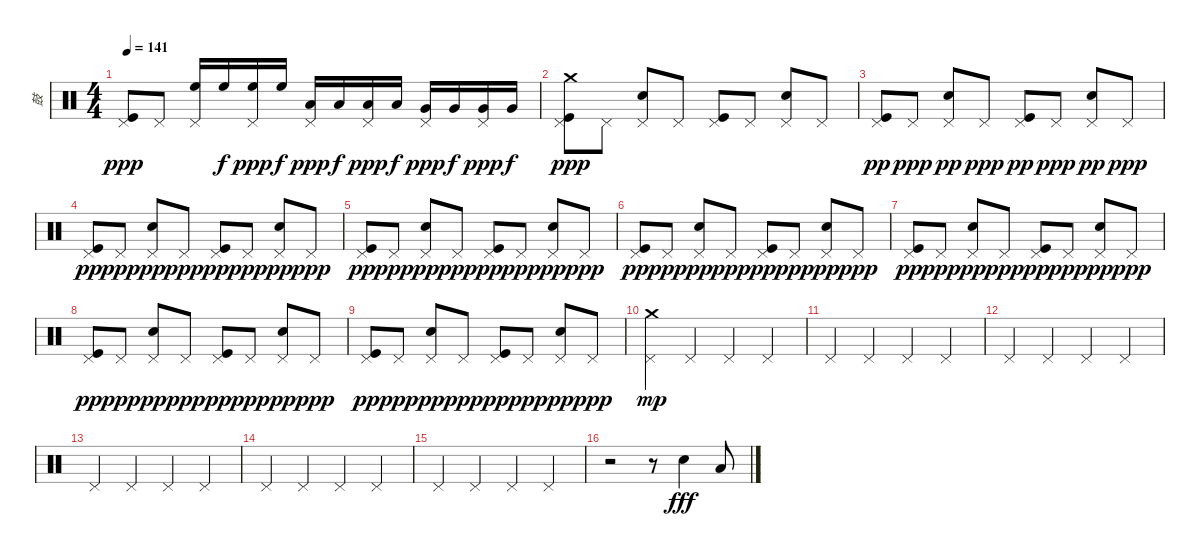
\track ("鼓" "鼓") {instrument percussion}
\staff {score}
\articulation defaults
\ts (4 4)
\tempo 141
\clef neutral
\ks c
("Kick (hit)" "Pedal Hi-Hat (hit)").8{dy ppp} "Pedal Hi-Hat (hit)".8 ("High Floor Tom (hit)" "Pedal Hi-Hat (hit)").16 "High Floor Tom (hit)".16{dy f} ("High Floor Tom (hit)" "Pedal Hi-Hat (hit)").16{dy ppp} "High Floor Tom (hit)".16{dy f} ("Low Tom (hit)" "Pedal Hi-Hat (hit)").16{dy ppp} "Low Tom (hit)".16{dy f} ("Low Tom (hit)" "Pedal Hi-Hat (hit)").16{dy ppp} "Low Tom (hit)".16{dy f} ("Very Low Tom (hit)" "Pedal Hi-Hat (hit)").16{dy ppp} "Very Low Tom (hit)".16{dy f} ("Very Low Tom (hit)" "Pedal Hi-Hat (hit)").16{dy ppp} "Very Low Tom (hit)".16{dy f} |
("Crash medium (hit)" "Kick (hit)" "Pedal Hi-Hat (hit)").8{dy ppp} "Pedal Hi-Hat (hit)".8 ("Snare (hit) 2" "Pedal Hi-Hat (hit)").8 "Pedal Hi-Hat (hit)".8 ("Kick (hit)" "Pedal Hi-Hat (hit)").8 "Pedal Hi-Hat (hit)".8 ("Snare (hit) 2" "Pedal Hi-Hat (hit)").8 "Pedal Hi-Hat (hit)".8 |
("Kick (hit)" "Pedal Hi-Hat (hit)").8{dy pp} "Pedal Hi-Hat (hit)".8{dy ppp} ("Snare (hit) 2" "Pedal Hi-Hat (hit)").8{dy pp} "Pedal Hi-Hat (hit)".8{dy ppp} ("Kick (hit)" "Pedal Hi-Hat (hit)").8{dy pp} "Pedal Hi-Hat (hit)".8{dy ppp} ("Snare (hit) 2" "Pedal Hi-Hat (hit)").8{dy pp} "Pedal Hi-Hat (hit)".8{dy ppp} |
("Kick (hit)" "Pedal Hi-Hat (hit)").8{dy pp} "Pedal Hi-Hat (hit)".8{dy ppp} ("Snare (hit) 2" "Pedal Hi-Hat (hit)").8{dy pp} "Pedal Hi-Hat (hit)".8{dy ppp} ("Kick (hit)" "Pedal Hi-Hat (hit)").8{dy pp} "Pedal Hi-Hat (hit)".8{dy ppp} ("Snare (hit) 2" "Pedal Hi-Hat (hit)").8{dy pp} "Pedal Hi-Hat (hit)".8{dy ppp} |
("Kick (hit)" "Pedal Hi-Hat (hit)").8{dy pp} "Pedal Hi-Hat (hit)".8{dy ppp} ("Snare (hit) 2" "Pedal Hi-Hat (hit)").8{dy pp} "Pedal Hi-Hat (hit)".8{dy ppp} ("Kick (hit)" "Pedal Hi-Hat (hit)").8{dy pp} "Pedal Hi-Hat (hit)".8{dy ppp} ("Snare (hit) 2" "Pedal Hi-Hat (hit)").8{dy pp} "Pedal Hi-Hat (hit)".8{dy ppp} |
("Kick (hit)" "Pedal Hi-Hat (hit)").8{dy pp} "Pedal Hi-Hat (hit)".8{dy ppp} ("Snare (hit) 2" "Pedal Hi-Hat (hit)").8{dy pp} "Pedal Hi-Hat (hit)".8{dy ppp} ("Kick (hit)" "Pedal Hi-Hat (hit)").8{dy pp} "Pedal Hi-Hat (hit)".8{dy ppp} ("Snare (hit) 2" "Pedal Hi-Hat (hit)").8{dy pp} "Pedal Hi-Hat (hit)".8{dy ppp} |
("Kick (hit)" "Pedal Hi-Hat (hit)").8{dy pp} "Pedal Hi-Hat (hit)".8{dy ppp} ("Snare (hit) 2" "Pedal Hi-Hat (hit)").8{dy pp} "Pedal Hi-Hat (hit)".8{dy ppp} ("Kick (hit)" "Pedal Hi-Hat (hit)").8{dy pp} "Pedal Hi-Hat (hit)".8{dy ppp} ("Snare (hit) 2" "Pedal Hi-Hat (hit)").8{dy pp} "Pedal Hi-Hat (hit)".8{dy ppp} |
("Kick (hit)" "Pedal Hi-Hat (hit)").8{dy pp} "Pedal Hi-Hat (hit)".8{dy ppp} ("Snare (hit) 2" "Pedal Hi-Hat (hit)").8{dy pp} "Pedal Hi-Hat (hit)".8{dy ppp} ("Kick (hit)" "Pedal Hi-Hat (hit)").8{dy pp} "Pedal Hi-Hat (hit)".8{dy ppp} ("Snare (hit) 2" "Pedal Hi-Hat (hit)").8{dy pp} "Pedal Hi-Hat (hit)".8{dy ppp} |
("Kick (hit)" "Pedal Hi-Hat (hit)").8{dy pp} "Pedal Hi-Hat (hit)".8{dy ppp} ("Snare (hit) 2" "Pedal Hi-Hat (hit)").8{dy pp} "Pedal Hi-Hat (hit)".8{dy ppp} ("Kick (hit)" "Pedal Hi-Hat (hit)").8{dy pp} "Pedal Hi-Hat (hit)".8{dy ppp} ("Snare (hit) 2" "Pedal Hi-Hat (hit)").8{dy pp} "Pedal Hi-Hat (hit)".8{dy ppp} |
("Crash medium (hit)" "Pedal Hi-Hat (hit)").4{dy mp} "Pedal Hi-Hat (hit)".4 "Pedal Hi-Hat (hit)".4 "Pedal Hi-Hat (hit)".4 |
"Pedal Hi-Hat (hit)".4 "Pedal Hi-Hat (hit)".4 "Pedal Hi-Hat (hit)".4 "Pedal Hi-Hat (hit)".4 |
"Pedal Hi-Hat (hit)".4 "Pedal Hi-Hat (hit)".4 "Pedal Hi-Hat (hit)".4 "Pedal Hi-Hat (hit)".4 |
"Pedal Hi-Hat (hit)".4 "Pedal Hi-Hat (hit)".4 "Pedal Hi-Hat (hit)".4 "Pedal Hi-Hat (hit)".4 |
"Pedal Hi-Hat (hit)".4 "Pedal Hi-Hat (hit)".4 "Pedal Hi-Hat (hit)".4 "Pedal Hi-Hat (hit)".4 |
"Pedal Hi-Hat (hit)".4 "Pedal Hi-Hat (hit)".4 "Pedal Hi-Hat (hit)".4 "Pedal Hi-Hat (hit)".4 |
r.2 r.8 "Snare (hit) 2".4{dy fff} "Low Tom (hit)".8
